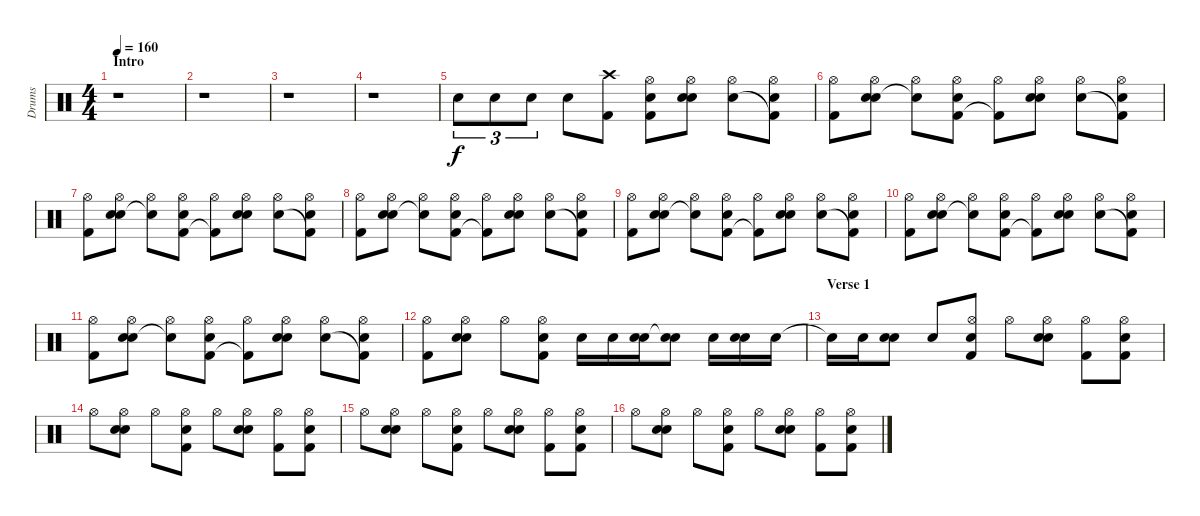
\track ("Drums" "Drums") {instrument percussion}
\staff {score}
\articulation defaults
\ts (4 4)
\section ("" "Intro")
\tempo 160
\clef neutral
\ks c
r.1{dy f} |
r.1 |
r.1 |
r.1 |
"Snare (hit) 2".8{tu (3 2)} "Snare (hit) 2".8{tu (3 2)} "Snare (hit) 2".8{tu (3 2)} "Snare (hit) 2".8 ("Kick (hit) 2" "Crash high (hit)").8 ("Kick (hit) 2" "Hi-Hat (open)" "Snare (hit)").8 ("Snare (hit) 2" "Hi-Hat (open)" "Hand Clap (hit)").8 ("Snare (hit) 2" "Hi-Hat (open)").8 ("Kick (hit) 2"{t} "Hi-Hat (open)" "Hand Clap (hit)").8 |
("Kick (hit) 2" "Hi-Hat (open)").8 ("Snare (hit) 2" "Hi-Hat (open)" "Hand Clap (hit)").8 ("Snare (hit) 2"{t} "Hi-Hat (open)").8 ("Kick (hit) 2" "Hi-Hat (open)" "Hand Clap (hit)").8 ("Kick (hit) 2"{t} "Hi-Hat (open)").8 ("Snare (hit) 2" "Hi-Hat (open)" "Hand Clap (hit)").8 ("Snare (hit) 2" "Hi-Hat (open)").8 ("Kick (hit) 2"{t} "Hi-Hat (open)" "Hand Clap (hit)").8 |
("Kick (hit) 2" "Hi-Hat (open)").8 ("Snare (hit) 2" "Hi-Hat (open)" "Hand Clap (hit)").8 ("Snare (hit) 2"{t} "Hi-Hat (open)").8 ("Kick (hit) 2" "Hi-Hat (open)" "Hand Clap (hit)").8 ("Kick (hit) 2"{t} "Hi-Hat (open)").8 ("Snare (hit) 2" "Hi-Hat (open)" "Hand Clap (hit)").8 ("Snare (hit) 2" "Hi-Hat (open)").8 ("Kick (hit) 2"{t} "Hi-Hat (open)" "Hand Clap (hit)").8 |
("Kick (hit) 2" "Hi-Hat (open)").8 ("Snare (hit) 2" "Hi-Hat (open)" "Hand Clap (hit)").8 ("Snare (hit) 2"{t} "Hi-Hat (open)").8 ("Kick (hit) 2" "Hi-Hat (open)" "Hand Clap (hit)").8 ("Kick (hit) 2"{t} "Hi-Hat (open)").8 ("Snare (hit) 2" "Hi-Hat (open)" "Hand Clap (hit)").8 ("Snare (hit) 2" "Hi-Hat (open)").8 ("Kick (hit) 2"{t} "Hi-Hat (open)" "Hand Clap (hit)").8 |
("Kick (hit) 2" "Hi-Hat (open)").8 ("Snare (hit) 2" "Hi-Hat (open)" "Hand Clap (hit)").8 ("Snare (hit) 2"{t} "Hi-Hat (open)").8 ("Kick (hit) 2" "Hi-Hat (open)" "Hand Clap (hit)").8 ("Kick (hit) 2"{t} "Hi-Hat (open)").8 ("Snare (hit) 2" "Hi-Hat (open)" "Hand Clap (hit)").8 ("Snare (hit) 2" "Hi-Hat (open)").8 ("Kick (hit) 2"{t} "Hi-Hat (open)" "Hand Clap (hit)").8 |
("Kick (hit) 2" "Hi-Hat (open)").8 ("Snare (hit) 2" "Hi-Hat (open)" "Hand Clap (hit)").8 ("Snare (hit) 2"{t} "Hi-Hat (open)").8 ("Kick (hit) 2" "Hi-Hat (open)" "Hand Clap (hit)").8 ("Kick (hit) 2"{t} "Hi-Hat (open)").8 ("Snare (hit) 2" "Hi-Hat (open)" "Hand Clap (hit)").8 ("Snare (hit) 2" "Hi-Hat (open)").8 ("Kick (hit) 2"{t} "Hi-Hat (open)" "Hand Clap (hit)").8 |
("Kick (hit) 2" "Hi-Hat (open)").8 ("Snare (hit) 2" "Hi-Hat (open)" "Hand Clap (hit)").8 ("Snare (hit) 2"{t} "Hi-Hat (open)").8 ("Kick (hit) 2" "Hi-Hat (open)" "Hand Clap (hit)").8 ("Kick (hit) 2"{t} "Hi-Hat (open)").8 ("Snare (hit) 2" "Hi-Hat (open)" "Hand Clap (hit)").8 ("Snare (hit) 2" "Hi-Hat (open)").8 ("Kick (hit) 2"{t} "Hi-Hat (open)" "Hand Clap (hit)").8 |
("Kick (hit) 2" "Hi-Hat (open)").8 ("Snare (hit) 2" "Hi-Hat (open)" "Hand Clap (hit)").8 "Hi-Hat (open)".8 ("Kick (hit) 2" "Hi-Hat (open)" "Hand Clap (hit)").8 "Snare (hit) 2".16 "Snare (hit) 2".16 ("Snare (hit) 2" "Hand Clap (hit)").16 ("Snare (hit) 2" "Hand Clap (hit)"{t}).8 "Snare (hit) 2".16 ("Snare (hit) 2" "Hand Clap (hit)").16 "Snare (hit) 2".16 |
\section ("" "Verse 1")
"Snare (hit) 2"{t}.16 "Snare (hit) 2".16 ("Snare (hit) 2" "Hand Clap (hit)").8 "Snare (hit) 2".8 ("Kick (hit) 2" "Hi-Hat (open)" "Hand Clap (hit)").8 "Hi-Hat (open)".8 ("Snare (hit) 2" "Hi-Hat (open)" "Hand Clap (hit)").8 ("Kick (hit) 2" "Hi-Hat (open)").8 ("Kick (hit) 2" "Hi-Hat (open)" "Hand Clap (hit)").8 |
"Hi-Hat (open)".8 ("Snare (hit) 2" "Hi-Hat (open)" "Hand Clap (hit)").8 "Hi-Hat (open)".8 ("Kick (hit) 2" "Hi-Hat (open)" "Hand Clap (hit)").8 "Hi-Hat (open)".8 ("Snare (hit) 2" "Hi-Hat (open)" "Hand Clap (hit)").8 ("Kick (hit) 2" "Hi-Hat (open)").8 ("Kick (hit) 2" "Hi-Hat (open)" "Hand Clap (hit)").8 |
"Hi-Hat (open)".8 ("Snare (hit) 2" "Hi-Hat (open)" "Hand Clap (hit)").8 "Hi-Hat (open)".8 ("Kick (hit) 2" "Hi-Hat (open)" "Hand Clap (hit)").8 "Hi-Hat (open)".8 ("Snare (hit) 2" "Hi-Hat (open)" "Hand Clap (hit)").8 ("Kick (hit) 2" "Hi-Hat (open)").8 ("Kick (hit) 2" "Hi-Hat (open)" "Hand Clap (hit)").8 |
"Hi-Hat (open)".8 ("Snare (hit) 2" "Hi-Hat (open)" "Hand Clap (hit)").8 "Hi-Hat (open)".8 ("Kick (hit) 2" "Hi-Hat (open)" "Hand Clap (hit)").8 "Hi-Hat (open)".8 ("Snare (hit) 2" "Hi-Hat (open)" "Hand Clap (hit)").8 ("Kick (hit) 2" "Hi-Hat (open)").8 ("Kick (hit) 2" "Hi-Hat (open)" "Hand Clap (hit)").8
